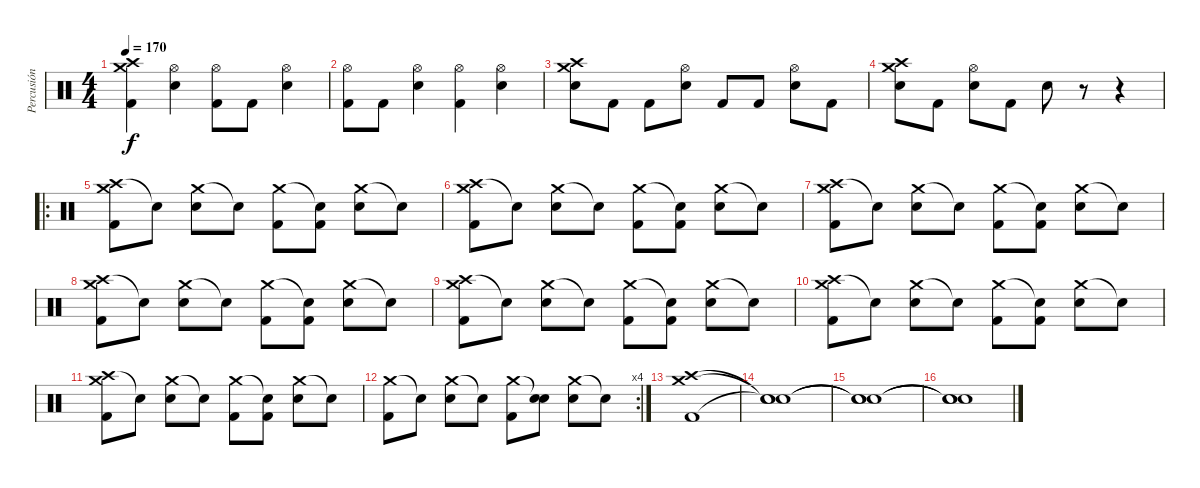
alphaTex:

\track ("Percusión" "Percusión") {instrument percussion}
\staff {score}
\articulation defaults
\ts (4 4)
\tempo 170
\clef neutral
\ks c
("Crash medium (hit)" "Crash high (hit)" "Kick (hit) 2").4{dy f} ("Hi-Hat (open)" "Electric Snare (hit)").4 ("Hi-Hat (open)" "Kick (hit) 2").8 "Kick (hit) 2".8 ("Hi-Hat (open)" "Electric Snare (hit)").4 |
("Hi-Hat (open)" "Kick (hit) 2").8 "Kick (hit) 2".8 ("Hi-Hat (open)" "Electric Snare (hit)").4 ("Hi-Hat (open)" "Kick (hit) 2").4 ("Hi-Hat (open)" "Electric Snare (hit)").4 |
("Crash medium (hit)" "Crash high (hit)" "Electric Snare (hit)").8 "Kick (hit) 2".8 "Kick (hit) 2".8 ("Hi-Hat (open)" "Electric Snare (hit)").8 "Kick (hit) 2".8 "Kick (hit) 2".8 ("Hi-Hat (open)" "Electric Snare (hit)").8 "Kick (hit) 2".8 |
("Crash high (hit)" "Crash medium (hit)" "Electric Snare (hit)").8 "Kick (hit) 2".8 ("Hi-Hat (open)" "Electric Snare (hit)").8 "Kick (hit) 2".8 "Electric Snare (hit)".8 r.8 r.4 |
\ro
("Crash high (hit)" "Crash medium (hit)" "Kick (hit) 2").8 "Snare (hit)"{t}.8 ("Crash medium (hit)" "Snare (hit) 2").8 "Snare (hit)"{t}.8 ("Crash medium (hit)" "Kick (hit) 2").8 ("Snare (hit)"{t} "Kick (hit) 2").8 ("Crash medium (hit)" "Electric Snare (hit)").8 "Snare (hit)"{t}.8 |
("Crash high (hit)" "Crash medium (hit)" "Kick (hit) 2").8 "Snare (hit)"{t}.8 ("Crash medium (hit)" "Electric Snare (hit)").8 "Snare (hit)"{t}.8 ("Crash medium (hit)" "Kick (hit) 2").8 ("Snare (hit)"{t} "Kick (hit) 2").8 ("Crash medium (hit)" "Electric Snare (hit)").8 "Snare (hit)"{t}.8 |
("Crash high (hit)" "Crash medium (hit)" "Kick (hit) 2").8 "Snare (hit)"{t}.8 ("Crash medium (hit)" "Snare (hit) 2").8 "Snare (hit)"{t}.8 ("Crash medium (hit)" "Kick (hit) 2").8 ("Snare (hit)"{t} "Kick (hit) 2").8 ("Crash medium (hit)" "Electric Snare (hit)").8 "Snare (hit)"{t}.8 |
("Crash high (hit)" "Crash medium (hit)" "Kick (hit) 2").8 "Snare (hit)"{t}.8 ("Crash medium (hit)" "Electric Snare (hit)").8 "Snare (hit)"{t}.8 ("Crash medium (hit)" "Kick (hit) 2").8 ("Snare (hit)"{t} "Kick (hit) 2").8 ("Crash medium (hit)" "Electric Snare (hit)").8 "Snare (hit)"{t}.8 |
("Crash high (hit)" "Crash medium (hit)" "Kick (hit) 2").8 "Snare (hit)"{t}.8 ("Crash medium (hit)" "Snare (hit) 2").8 "Snare (hit)"{t}.8 ("Crash medium (hit)" "Kick (hit) 2").8 ("Snare (hit)"{t} "Kick (hit) 2").8 ("Crash medium (hit)" "Electric Snare (hit)").8 "Snare (hit)"{t}.8 |
("Crash high (hit)" "Crash medium (hit)" "Kick (hit) 2").8 "Snare (hit)"{t}.8 ("Crash medium (hit)" "Electric Snare (hit)").8 "Snare (hit)"{t}.8 ("Crash medium (hit)" "Kick (hit) 2").8 ("Snare (hit)"{t} "Kick (hit) 2").8 ("Crash medium (hit)" "Electric Snare (hit)").8 "Snare (hit)"{t}.8 |
("Crash high (hit)" "Crash medium (hit)" "Kick (hit) 2").8 "Snare (hit)"{t}.8 ("Crash medium (hit)" "Snare (hit) 2").8 "Snare (hit)"{t}.8 ("Crash medium (hit)" "Kick (hit) 2").8 ("Snare (hit)"{t} "Kick (hit) 2").8 ("Crash medium (hit)" "Electric Snare (hit)").8 "Snare (hit)"{t}.8 |
\rc 4
("Crash medium (hit)" "Kick (hit) 2").8 "Snare (hit)"{t}.8 ("Crash medium (hit)" "Electric Snare (hit)").8 "Snare (hit)"{t}.8 ("Crash medium (hit)" "Kick (hit) 2").8 ("Snare (hit)"{t} "Electric Snare (hit)").8 ("Crash medium (hit)" "Electric Snare (hit)").8 "Snare (hit)"{t}.8 |
("Crash medium (hit)" "Crash high (hit)" "Kick (hit) 2").1 |
("Snare (hit)"{t} "Snare (hit)"{t} "Snare (hit)"{t}).1 |
("Snare (hit)"{t} "Snare (hit)"{t} "Snare (hit)"{t}).1 |
("Snare (hit)"{t} "Snare (hit)"{t} "Snare (hit)"{t}).1
